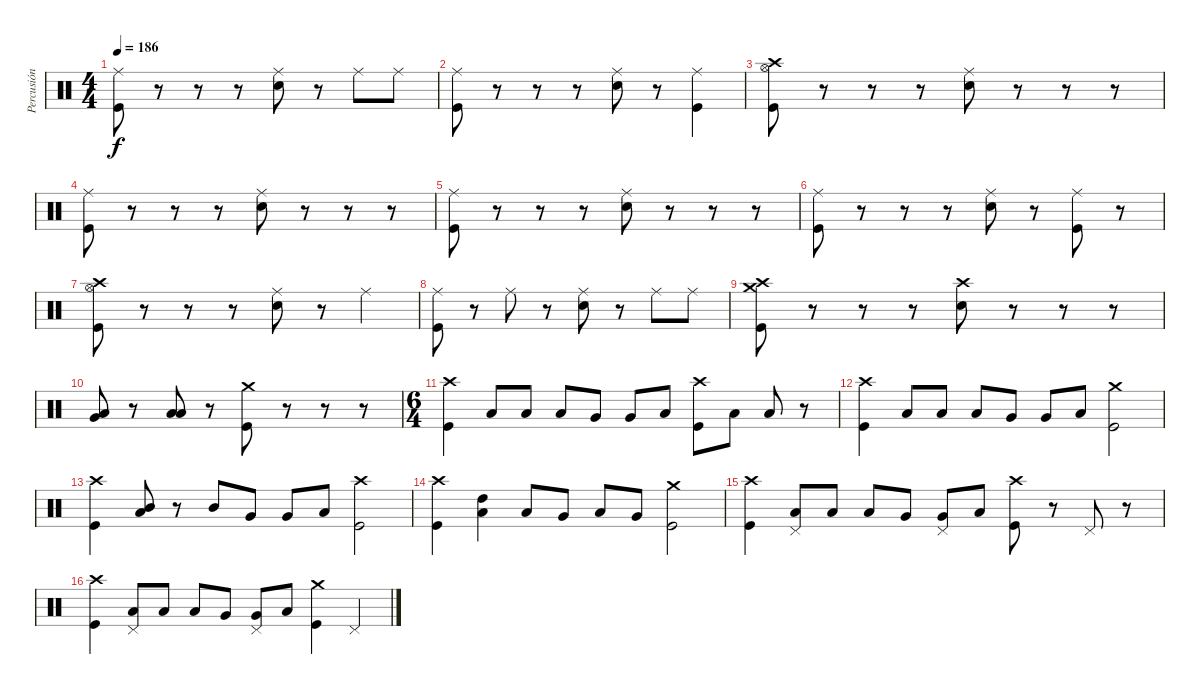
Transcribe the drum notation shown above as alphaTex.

\track ("Percusión" "Percusión") {instrument percussion}
\staff {score}
\articulation defaults
\ts (4 4)
\tempo 186
\clef neutral
\ks c
("Ride (middle)" "Kick (hit)").8{dy f} r.8 r.8 r.8 ("Ride (middle)" "Snare (hit) 2").8 r.8 "Ride (middle)".8 "Ride (middle)".8 |
("Ride (middle)" "Kick (hit)").8 r.8 r.8 r.8 ("Ride (middle)" "Snare (hit) 2").8 r.8 ("Ride (middle)" "Kick (hit)").4 |
("Hi-Hat (open)" "Crash high (hit)" "Kick (hit)").8 r.8 r.8 r.8 ("Ride (middle)" "Snare (hit) 2").8 r.8 r.8 r.8 |
("Ride (middle)" "Kick (hit)").8 r.8 r.8 r.8 ("Ride (middle)" "Snare (hit) 2").8 r.8 r.8 r.8 |
("Ride (middle)" "Kick (hit)").8 r.8 r.8 r.8 ("Ride (middle)" "Snare (hit) 2").8 r.8 r.8 r.8 |
("Ride (middle)" "Kick (hit)").8 r.8 r.8 r.8 ("Ride (middle)" "Snare (hit) 2").8 r.8 ("Ride (middle)" "Kick (hit)").8 r.8 |
("Hi-Hat (open)" "Crash high (hit)" "Kick (hit)").8 r.8 r.8 r.8 ("Ride (middle)" "Snare (hit) 2").8 r.8 "Ride (middle)".4 |
("Ride (middle)" "Kick (hit)").8 r.8 "Ride (middle)".8 r.8 ("Ride (middle)" "Snare (hit) 2").8 r.8 "Ride (middle)".8 "Ride (middle)".8 |
("Crash high (hit)" "Crash medium (hit)" "Kick (hit)").8 r.8 r.8 r.8 ("Crash high (hit)" "Snare (hit) 2").8 r.8 r.8 r.8 |
("Low Tom (hit)" "Very Low Tom (hit)").8 r.8 ("Low Tom (hit)" "Low Floor Tom (hit)").8 r.8 ("Crash medium (hit)" "Kick (hit)").8 r.8 r.8 r.8 |
\ts (6 4)
("Crash high (hit)" "Kick (hit)").4 "Low Tom (hit)".8 "Low Tom (hit)".8 "Low Tom (hit)".8 "Very Low Tom (hit)".8 "Very Low Tom (hit)".8 "Low Tom (hit)".8 ("Crash high (hit)" "Kick (hit)").8 "Low Tom (hit)".8 "Low Floor Tom (hit)".8 r.8 |
("Crash high (hit)" "Kick (hit)").4 "Low Tom (hit)".8 "Low Tom (hit)".8 "Low Tom (hit)".8 "Very Low Tom (hit)".8 "Very Low Tom (hit)".8 "Low Tom (hit)".8 ("Crash medium (hit)" "Kick (hit)").2 |
("Crash high (hit)" "Kick (hit)").4 ("Low Tom (hit)" "Mid Tom (hit)").8 r.8 "Mid Tom (hit)".8 "Very Low Tom (hit)".8 "Very Low Tom (hit)".8 "Low Tom (hit)".8 ("Crash high (hit)" "Kick (hit)").2 |
("Crash high (hit)" "Kick (hit)").4 ("High Tom (hit)" "Low Floor Tom (hit)").4 "Low Tom (hit)".8 "Very Low Tom (hit)".8 "Low Floor Tom (hit)".8 "Very Low Tom (hit)".8 ("Crash medium (hit)" "Kick (hit)").2 |
("Crash high (hit)" "Kick (hit)").4 ("Low Tom (hit)" "Pedal Hi-Hat (hit)").8 "Low Tom (hit)".8 "Low Tom (hit)".8 "Very Low Tom (hit)".8 ("Very Low Tom (hit)" "Pedal Hi-Hat (hit)").8 "Low Tom (hit)".8 ("Crash high (hit)" "Kick (hit)").8 r.8 "Pedal Hi-Hat (hit)".8 r.8 |
("Crash high (hit)" "Kick (hit)").4 ("Low Tom (hit)" "Pedal Hi-Hat (hit)").8 "Low Tom (hit)".8 "Low Tom (hit)".8 "Very Low Tom (hit)".8 ("Very Low Tom (hit)" "Pedal Hi-Hat (hit)").8 "Low Tom (hit)".8 ("Crash medium (hit)" "Kick (hit)").4 "Pedal Hi-Hat (hit)".4
